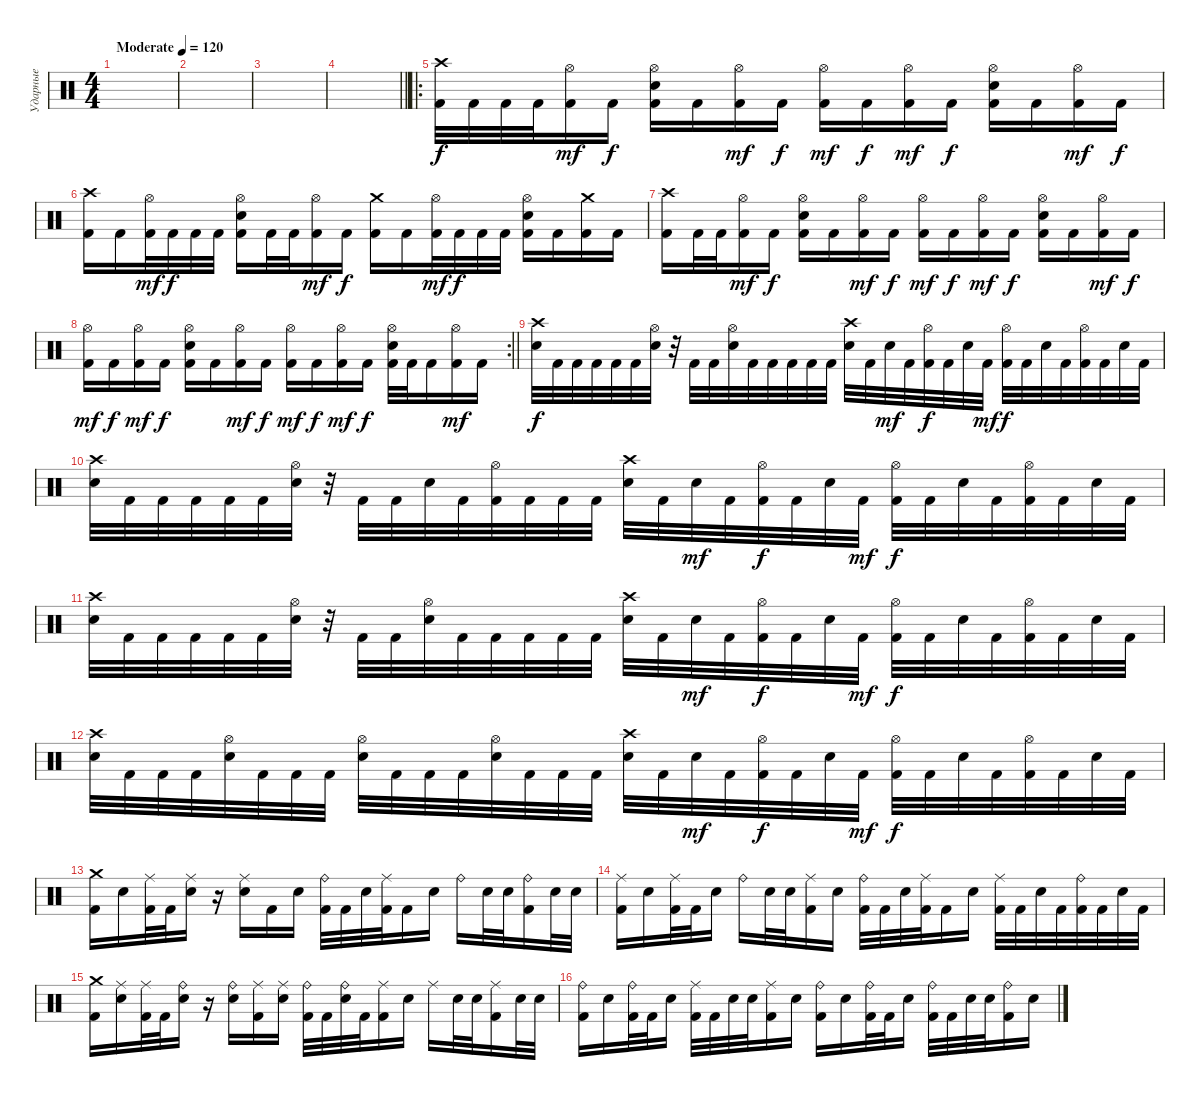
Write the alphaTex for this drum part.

\track ("Ударные" "Ударные") {instrument percussion}
\staff {score}
\articulation defaults
\ts (4 4)
\tempo (120 "Moderate")
\clef neutral
\ks c
|
|
|
\barLineRight lightlight
|
\ro
("Crash high (hit)" "Kick (hit) 2").32 "Kick (hit) 2".32 "Kick (hit) 2".32 "Kick (hit) 2".32 ("Hi-Hat (open)" "Kick (hit) 2").16{dy mf} "Kick (hit) 2".16{dy f} ("Hi-Hat (open)" "Electric Snare (hit)" "Kick (hit) 2").16 "Kick (hit) 2".16 ("Hi-Hat (open)" "Kick (hit) 2").16{dy mf} "Kick (hit) 2".16{dy f} ("Hi-Hat (open)" "Kick (hit) 2").16{dy mf} "Kick (hit) 2".16{dy f} ("Hi-Hat (open)" "Kick (hit) 2").16{dy mf} "Kick (hit) 2".16{dy f} ("Hi-Hat (open)" "Electric Snare (hit)" "Kick (hit) 2").16 "Kick (hit) 2".16 ("Hi-Hat (open)" "Kick (hit) 2").16{dy mf} "Kick (hit) 2".16{dy f} |
("Crash high (hit)" "Kick (hit) 2").16 "Kick (hit) 2".16 ("Hi-Hat (open)" "Kick (hit) 2").32{dy mf} "Kick (hit) 2".32{dy f} "Kick (hit) 2".32 "Kick (hit) 2".32 ("Hi-Hat (open)" "Electric Snare (hit)" "Kick (hit) 2").16 "Kick (hit) 2".32 "Kick (hit) 2".32 ("Hi-Hat (open)" "Kick (hit) 2").16{dy mf} "Kick (hit) 2".16{dy f} ("Crash medium (hit)" "Kick (hit) 2").16 "Kick (hit) 2".16 ("Hi-Hat (open)" "Kick (hit) 2").32{dy mf} "Kick (hit) 2".32{dy f} "Kick (hit) 2".32 "Kick (hit) 2".32 ("Hi-Hat (open)" "Electric Snare (hit)" "Kick (hit) 2").16 "Kick (hit) 2".16 ("Crash medium (hit)" "Kick (hit) 2").16 "Kick (hit) 2".16 |
("Crash high (hit)" "Kick (hit) 2").16 "Kick (hit) 2".32 "Kick (hit) 2".32 ("Hi-Hat (open)" "Kick (hit) 2").16{dy mf} "Kick (hit) 2".16{dy f} ("Hi-Hat (open)" "Electric Snare (hit)" "Kick (hit) 2").16 "Kick (hit) 2".16 ("Hi-Hat (open)" "Kick (hit) 2").16{dy mf} "Kick (hit) 2".16{dy f} ("Hi-Hat (open)" "Kick (hit) 2").16{dy mf} "Kick (hit) 2".16{dy f} ("Hi-Hat (open)" "Kick (hit) 2").16{dy mf} "Kick (hit) 2".16{dy f} ("Hi-Hat (open)" "Electric Snare (hit)" "Kick (hit) 2").16 "Kick (hit) 2".16 ("Hi-Hat (open)" "Kick (hit) 2").16{dy mf} "Kick (hit) 2".16{dy f} |
\rc 2
\barLineRight lightlight
("Hi-Hat (open)" "Kick (hit) 2").16{dy mf} "Kick (hit) 2".16{dy f} ("Hi-Hat (open)" "Kick (hit) 2").16{dy mf} "Kick (hit) 2".16{dy f} ("Hi-Hat (open)" "Electric Snare (hit)" "Kick (hit) 2").16 "Kick (hit) 2".16 ("Hi-Hat (open)" "Kick (hit) 2").16{dy mf} "Kick (hit) 2".16{dy f} ("Hi-Hat (open)" "Kick (hit) 2").16{dy mf} "Kick (hit) 2".16{dy f} ("Hi-Hat (open)" "Kick (hit) 2").16{dy mf} "Kick (hit) 2".16{dy f} ("Hi-Hat (open)" "Electric Snare (hit)" "Kick (hit) 2").32 "Kick (hit) 2".32 "Kick (hit) 2".16 ("Hi-Hat (open)" "Kick (hit) 2").16{dy mf} "Kick (hit) 2".16 |
("Crash high (hit)" "Electric Snare (hit)").32{dy f} "Kick (hit) 2".32 "Kick (hit) 2".32 "Kick (hit) 2".32 "Kick (hit) 2".32 "Kick (hit) 2".32 ("Hi-Hat (open)" "Electric Snare (hit)").32 r.32 "Kick (hit) 2".32 "Kick (hit) 2".32 ("Hi-Hat (open)" "Electric Snare (hit)").32 "Kick (hit) 2".32 "Kick (hit) 2".32 "Kick (hit) 2".32 "Kick (hit) 2".32 "Kick (hit) 2".32 ("Crash high (hit)" "Electric Snare (hit)").32 "Kick (hit) 2".32 "Electric Snare (hit)".32{dy mf} "Kick (hit) 2".32 ("Hi-Hat (open)" "Kick (hit) 2").32{dy f} "Kick (hit) 2".32 "Electric Snare (hit)".32 "Kick (hit) 2".32{dy mf} ("Hi-Hat (open)" "Kick (hit) 2").32{dy f} "Kick (hit) 2".32 "Electric Snare (hit)".32 "Kick (hit) 2".32 ("Hi-Hat (open)" "Kick (hit) 2").32 "Kick (hit) 2".32 "Electric Snare (hit)".32 "Kick (hit) 2".32 |
("Crash high (hit)" "Electric Snare (hit)").32 "Kick (hit) 2".32 "Kick (hit) 2".32 "Kick (hit) 2".32 "Kick (hit) 2".32 "Kick (hit) 2".32 ("Hi-Hat (open)" "Electric Snare (hit)").32 r.32 "Kick (hit) 2".32 "Kick (hit) 2".32 "Electric Snare (hit)".32 "Kick (hit) 2".32 ("Hi-Hat (open)" "Kick (hit) 2").32 "Kick (hit) 2".32 "Kick (hit) 2".32 "Kick (hit) 2".32 ("Crash high (hit)" "Electric Snare (hit)").32 "Kick (hit) 2".32 "Electric Snare (hit)".32{dy mf} "Kick (hit) 2".32 ("Hi-Hat (open)" "Kick (hit) 2").32{dy f} "Kick (hit) 2".32 "Electric Snare (hit)".32 "Kick (hit) 2".32{dy mf} ("Hi-Hat (open)" "Kick (hit) 2").32{dy f} "Kick (hit) 2".32 "Electric Snare (hit)".32 "Kick (hit) 2".32 ("Hi-Hat (open)" "Kick (hit) 2").32 "Kick (hit) 2".32 "Electric Snare (hit)".32 "Kick (hit) 2".32 |
("Crash high (hit)" "Electric Snare (hit)").32 "Kick (hit) 2".32 "Kick (hit) 2".32 "Kick (hit) 2".32 "Kick (hit) 2".32 "Kick (hit) 2".32 ("Hi-Hat (open)" "Electric Snare (hit)").32 r.32 "Kick (hit) 2".32 "Kick (hit) 2".32 ("Hi-Hat (open)" "Electric Snare (hit)").32 "Kick (hit) 2".32 "Kick (hit) 2".32 "Kick (hit) 2".32 "Kick (hit) 2".32 "Kick (hit) 2".32 ("Crash high (hit)" "Electric Snare (hit)").32 "Kick (hit) 2".32 "Electric Snare (hit)".32{dy mf} "Kick (hit) 2".32 ("Hi-Hat (open)" "Kick (hit) 2").32{dy f} "Kick (hit) 2".32 "Electric Snare (hit)".32 "Kick (hit) 2".32{dy mf} ("Hi-Hat (open)" "Kick (hit) 2").32{dy f} "Kick (hit) 2".32 "Electric Snare (hit)".32 "Kick (hit) 2".32 ("Hi-Hat (open)" "Kick (hit) 2").32 "Kick (hit) 2".32 "Electric Snare (hit)".32 "Kick (hit) 2".32 |
("Crash high (hit)" "Electric Snare (hit)").32 "Kick (hit) 2".32 "Kick (hit) 2".32 "Kick (hit) 2".32 ("Hi-Hat (open)" "Electric Snare (hit)").32 "Kick (hit) 2".32 "Kick (hit) 2".32 "Kick (hit) 2".32 ("Hi-Hat (open)" "Electric Snare (hit)").32 "Kick (hit) 2".32 "Kick (hit) 2".32 "Kick (hit) 2".32 ("Hi-Hat (open)" "Electric Snare (hit)").32 "Kick (hit) 2".32 "Kick (hit) 2".32 "Kick (hit) 2".32 ("Crash high (hit)" "Electric Snare (hit)").32 "Kick (hit) 2".32 "Electric Snare (hit)".32{dy mf} "Kick (hit) 2".32 ("Hi-Hat (open)" "Kick (hit) 2").32{dy f} "Kick (hit) 2".32 "Electric Snare (hit)".32 "Kick (hit) 2".32{dy mf} ("Hi-Hat (open)" "Kick (hit) 2").32{dy f} "Kick (hit) 2".32 "Electric Snare (hit)".32 "Kick (hit) 2".32 ("Hi-Hat (open)" "Kick (hit) 2").32 "Kick (hit) 2".32 "Electric Snare (hit)".32 "Kick (hit) 2".32 |
("Crash medium (hit)" "Kick (hit) 2").16 "Electric Snare (hit)".16 ("Ride (middle)" "Kick (hit) 2").32 "Kick (hit) 2".32 ("Ride (middle)" "Electric Snare (hit)").16 r.16 ("Ride (middle)" "Electric Snare (hit)").16 "Kick (hit) 2".16 "Electric Snare (hit)".16 ("Ride (bell)" "Kick (hit) 2").32 "Kick (hit) 2".32 "Electric Snare (hit)".32 ("Ride (middle)" "Kick (hit) 2").32 "Kick (hit) 2".16 "Electric Snare (hit)".16 "Ride (bell)".16 "Electric Snare (hit)".32 "Electric Snare (hit)".32 ("Ride (bell)" "Kick (hit) 2").16 "Electric Snare (hit)".32 "Electric Snare (hit)".32 |
("Ride (middle)" "Kick (hit) 2").16 "Electric Snare (hit)".16 ("Ride (middle)" "Kick (hit) 2").32 "Kick (hit) 2".32 "Electric Snare (hit)".16 "Ride (bell)".16 "Electric Snare (hit)".32 "Electric Snare (hit)".32 ("Ride (middle)" "Kick (hit) 2").16 "Electric Snare (hit)".16 ("Ride (bell)" "Kick (hit) 2").32 "Kick (hit) 2".32 "Electric Snare (hit)".32 ("Ride (middle)" "Kick (hit) 2").32 "Kick (hit) 2".16 "Electric Snare (hit)".16 ("Ride (middle)" "Kick (hit) 2").32 "Kick (hit) 2".32 "Electric Snare (hit)".32 "Kick (hit) 2".32 ("Ride (bell)" "Kick (hit) 2").32 "Kick (hit) 2".32 "Electric Snare (hit)".32 "Kick (hit) 2".32 |
("Crash medium (hit)" "Kick (hit) 2").16 ("Ride (middle)" "Electric Snare (hit)").16 ("Ride (middle)" "Kick (hit) 2").32 "Kick (hit) 2".32 ("Ride (bell)" "Electric Snare (hit)").16 r.16 ("Ride (bell)" "Electric Snare (hit)").16 ("Ride (middle)" "Kick (hit) 2").16 ("Ride (middle)" "Electric Snare (hit)").16 ("Ride (bell)" "Kick (hit) 2").32 "Kick (hit) 2".32 ("Ride (bell)" "Electric Snare (hit)").32 "Kick (hit) 2".32 ("Ride (middle)" "Kick (hit) 2").16 "Electric Snare (hit)".16 "Ride (middle)".16 "Electric Snare (hit)".32 "Electric Snare (hit)".32 ("Ride (middle)" "Kick (hit) 2").16 "Electric Snare (hit)".32 "Electric Snare (hit)".32 |
("Ride (bell)" "Kick (hit) 2").16 "Electric Snare (hit)".16 ("Ride (bell)" "Kick (hit) 2").32 "Kick (hit) 2".32 "Electric Snare (hit)".16 ("Ride (middle)" "Kick (hit) 2").32 "Kick (hit) 2".32 "Electric Snare (hit)".32 "Electric Snare (hit)".32 ("Ride (middle)" "Kick (hit) 2").16 "Electric Snare (hit)".16 ("Ride (bell)" "Kick (hit) 2").16 "Electric Snare (hit)".16 ("Ride (bell)" "Kick (hit) 2").32 "Kick (hit) 2".32 "Electric Snare (hit)".16 ("Ride (bell)" "Kick (hit) 2").32 "Kick (hit) 2".32 "Electric Snare (hit)".32 "Electric Snare (hit)".32 ("Ride (bell)" "Kick (hit) 2").16 "Electric Snare (hit)".16
